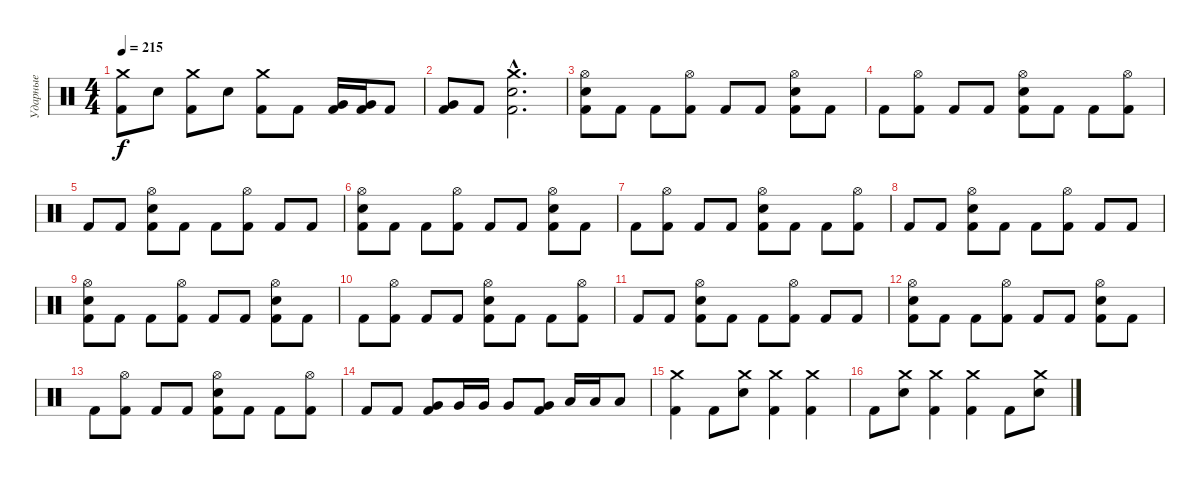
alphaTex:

\track ("Ударные" "Ударные") {instrument percussion}
\staff {score}
\articulation defaults
\ts (4 4)
\tempo 215
\clef neutral
\ks c
("Crash medium (hit)" "Kick (hit) 2").8{dy f} "Snare (hit) 2".8 ("Crash medium (hit)" "Kick (hit) 2").8 "Snare (hit) 2".8 ("Crash medium (hit)" "Kick (hit) 2").8 "Kick (hit) 2".8 ("Very Low Tom (hit)" "Kick (hit) 2").16 ("Very Low Tom (hit)" "Kick (hit) 2").16 "Kick (hit) 2".8 |
("Very Low Tom (hit)" "Kick (hit) 2").8 "Kick (hit) 2".8 ("Crash medium (hit)"{hac} "Snare (hit) 2"{hac} "Kick (hit) 2"{hac}).2{d} |
("Hi-Hat (open)" "Snare (hit) 2" "Kick (hit) 2").8 "Kick (hit) 2".8 "Kick (hit) 2".8 ("Hi-Hat (open)" "Kick (hit) 2").8 "Kick (hit) 2".8 "Kick (hit) 2".8 ("Hi-Hat (open)" "Snare (hit) 2" "Kick (hit) 2").8 "Kick (hit) 2".8 |
"Kick (hit) 2".8 ("Hi-Hat (open)" "Kick (hit) 2").8 "Kick (hit) 2".8 "Kick (hit) 2".8 ("Hi-Hat (open)" "Snare (hit) 2" "Kick (hit) 2").8 "Kick (hit) 2".8 "Kick (hit) 2".8 ("Hi-Hat (open)" "Kick (hit) 2").8 |
"Kick (hit) 2".8 "Kick (hit) 2".8 ("Hi-Hat (open)" "Snare (hit) 2" "Kick (hit) 2").8 "Kick (hit) 2".8 "Kick (hit) 2".8 ("Hi-Hat (open)" "Kick (hit) 2").8 "Kick (hit) 2".8 "Kick (hit) 2".8 |
("Hi-Hat (open)" "Snare (hit) 2" "Kick (hit) 2").8 "Kick (hit) 2".8 "Kick (hit) 2".8 ("Hi-Hat (open)" "Kick (hit) 2").8 "Kick (hit) 2".8 "Kick (hit) 2".8 ("Hi-Hat (open)" "Snare (hit) 2" "Kick (hit) 2").8 "Kick (hit) 2".8 |
"Kick (hit) 2".8 ("Hi-Hat (open)" "Kick (hit) 2").8 "Kick (hit) 2".8 "Kick (hit) 2".8 ("Hi-Hat (open)" "Snare (hit) 2" "Kick (hit) 2").8 "Kick (hit) 2".8 "Kick (hit) 2".8 ("Hi-Hat (open)" "Kick (hit) 2").8 |
"Kick (hit) 2".8 "Kick (hit) 2".8 ("Hi-Hat (open)" "Snare (hit) 2" "Kick (hit) 2").8 "Kick (hit) 2".8 "Kick (hit) 2".8 ("Hi-Hat (open)" "Kick (hit) 2").8 "Kick (hit) 2".8 "Kick (hit) 2".8 |
("Hi-Hat (open)" "Snare (hit) 2" "Kick (hit) 2").8 "Kick (hit) 2".8 "Kick (hit) 2".8 ("Hi-Hat (open)" "Kick (hit) 2").8 "Kick (hit) 2".8 "Kick (hit) 2".8 ("Hi-Hat (open)" "Snare (hit) 2" "Kick (hit) 2").8 "Kick (hit) 2".8 |
"Kick (hit) 2".8 ("Hi-Hat (open)" "Kick (hit) 2").8 "Kick (hit) 2".8 "Kick (hit) 2".8 ("Hi-Hat (open)" "Snare (hit) 2" "Kick (hit) 2").8 "Kick (hit) 2".8 "Kick (hit) 2".8 ("Hi-Hat (open)" "Kick (hit) 2").8 |
"Kick (hit) 2".8 "Kick (hit) 2".8 ("Hi-Hat (open)" "Snare (hit) 2" "Kick (hit) 2").8 "Kick (hit) 2".8 "Kick (hit) 2".8 ("Hi-Hat (open)" "Kick (hit) 2").8 "Kick (hit) 2".8 "Kick (hit) 2".8 |
("Hi-Hat (open)" "Snare (hit) 2" "Kick (hit) 2").8 "Kick (hit) 2".8 "Kick (hit) 2".8 ("Hi-Hat (open)" "Kick (hit) 2").8 "Kick (hit) 2".8 "Kick (hit) 2".8 ("Hi-Hat (open)" "Snare (hit) 2" "Kick (hit) 2").8 "Kick (hit) 2".8 |
"Kick (hit) 2".8 ("Hi-Hat (open)" "Kick (hit) 2").8 "Kick (hit) 2".8 "Kick (hit) 2".8 ("Hi-Hat (open)" "Snare (hit) 2" "Kick (hit) 2").8 "Kick (hit) 2".8 "Kick (hit) 2".8 ("Hi-Hat (open)" "Kick (hit) 2").8 |
"Kick (hit) 2".8 "Kick (hit) 2".8 ("Very Low Tom (hit)" "Kick (hit) 2").8 "Very Low Tom (hit)".16 "Very Low Tom (hit)".16 "Very Low Tom (hit)".8 ("Very Low Tom (hit)" "Kick (hit) 2").8 "Low Floor Tom (hit)".16 "Low Floor Tom (hit)".16 "Low Floor Tom (hit)".8 |
("Crash medium (hit)" "Kick (hit) 2").4 "Kick (hit) 2".8 ("Crash medium (hit)" "Snare (hit) 2").8 ("Crash medium (hit)" "Kick (hit) 2").4 ("Crash medium (hit)" "Kick (hit) 2").4 |
"Kick (hit) 2".8 ("Crash medium (hit)" "Snare (hit) 2").8 ("Crash medium (hit)" "Kick (hit) 2").4 ("Crash medium (hit)" "Kick (hit) 2").4 "Kick (hit) 2".8 ("Crash medium (hit)" "Snare (hit) 2").8
